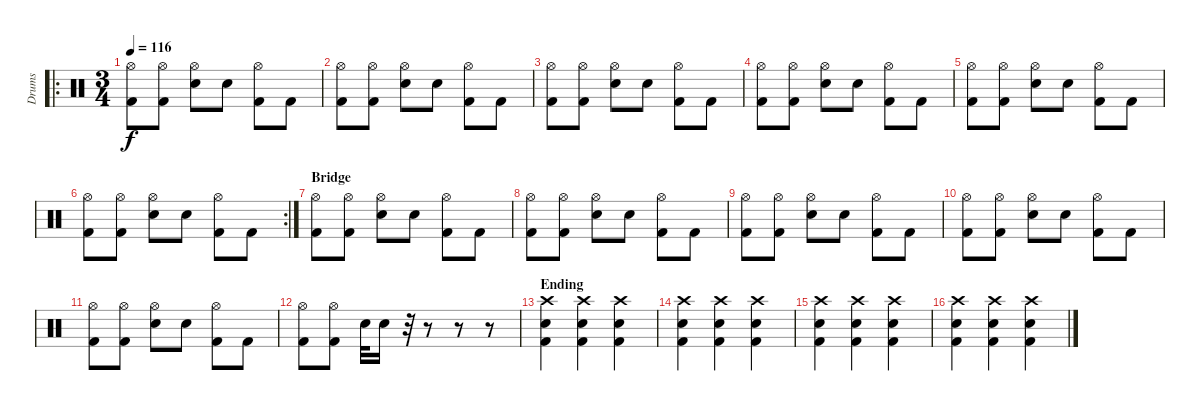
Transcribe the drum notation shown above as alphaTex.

\track ("Drums" "Drums") {instrument percussion}
\staff {score}
\articulation defaults
\ro
\ts (3 4)
\tempo 116
\clef neutral
\ks c
("Hi-Hat (open)" "Kick (hit) 2").8{dy f} ("Hi-Hat (open)" "Kick (hit) 2").8 ("Hi-Hat (open)" "Snare (hit) 2").8 "Snare (hit) 2".8 ("Hi-Hat (open)" "Kick (hit) 2").8 "Kick (hit) 2".8 |
("Hi-Hat (open)" "Kick (hit) 2").8 ("Hi-Hat (open)" "Kick (hit) 2").8 ("Hi-Hat (open)" "Snare (hit) 2").8 "Snare (hit) 2".8 ("Hi-Hat (open)" "Kick (hit) 2").8 "Kick (hit) 2".8 |
("Hi-Hat (open)" "Kick (hit) 2").8 ("Hi-Hat (open)" "Kick (hit) 2").8 ("Hi-Hat (open)" "Snare (hit) 2").8 "Snare (hit) 2".8 ("Hi-Hat (open)" "Kick (hit) 2").8 "Kick (hit) 2".8 |
("Hi-Hat (open)" "Kick (hit) 2").8 ("Hi-Hat (open)" "Kick (hit) 2").8 ("Hi-Hat (open)" "Snare (hit) 2").8 "Snare (hit) 2".8 ("Hi-Hat (open)" "Kick (hit) 2").8 "Kick (hit) 2".8 |
("Hi-Hat (open)" "Kick (hit) 2").8 ("Hi-Hat (open)" "Kick (hit) 2").8 ("Hi-Hat (open)" "Snare (hit) 2").8 "Snare (hit) 2".8 ("Hi-Hat (open)" "Kick (hit) 2").8 "Kick (hit) 2".8 |
\rc 2
("Hi-Hat (open)" "Kick (hit) 2").8 ("Hi-Hat (open)" "Kick (hit) 2").8 ("Hi-Hat (open)" "Snare (hit) 2").8 "Snare (hit) 2".8 ("Hi-Hat (open)" "Kick (hit) 2").8 "Kick (hit) 2".8 |
\section ("" "Bridge")
("Hi-Hat (open)" "Kick (hit) 2").8 ("Hi-Hat (open)" "Kick (hit) 2").8 ("Hi-Hat (open)" "Snare (hit) 2").8 "Snare (hit) 2".8 ("Hi-Hat (open)" "Kick (hit) 2").8 "Kick (hit) 2".8 |
("Hi-Hat (open)" "Kick (hit) 2").8 ("Hi-Hat (open)" "Kick (hit) 2").8 ("Hi-Hat (open)" "Snare (hit) 2").8 "Snare (hit) 2".8 ("Hi-Hat (open)" "Kick (hit) 2").8 "Kick (hit) 2".8 |
("Hi-Hat (open)" "Kick (hit) 2").8 ("Hi-Hat (open)" "Kick (hit) 2").8 ("Hi-Hat (open)" "Snare (hit) 2").8 "Snare (hit) 2".8 ("Hi-Hat (open)" "Kick (hit) 2").8 "Kick (hit) 2".8 |
("Hi-Hat (open)" "Kick (hit) 2").8 ("Hi-Hat (open)" "Kick (hit) 2").8 ("Hi-Hat (open)" "Snare (hit) 2").8 "Snare (hit) 2".8 ("Hi-Hat (open)" "Kick (hit) 2").8 "Kick (hit) 2".8 |
("Hi-Hat (open)" "Kick (hit) 2").8 ("Hi-Hat (open)" "Kick (hit) 2").8 ("Hi-Hat (open)" "Snare (hit) 2").8 "Snare (hit) 2".8 ("Hi-Hat (open)" "Kick (hit) 2").8 "Kick (hit) 2".8 |
("Hi-Hat (open)" "Kick (hit) 2").8 ("Hi-Hat (open)" "Kick (hit) 2").8 "Snare (hit) 2".32 "Snare (hit) 2".16 r.32 r.8 r.8 r.8 |
\section ("" "Ending")
("Crash high (hit)" "Snare (hit) 2" "Kick (hit) 2").4 ("Crash high (hit)" "Snare (hit) 2" "Kick (hit) 2").4 ("Crash high (hit)" "Snare (hit) 2" "Kick (hit) 2").4 |
("Crash high (hit)" "Snare (hit) 2" "Kick (hit) 2").4 ("Crash high (hit)" "Snare (hit) 2" "Kick (hit) 2").4 ("Crash high (hit)" "Snare (hit) 2" "Kick (hit) 2").4 |
("Crash high (hit)" "Snare (hit) 2" "Kick (hit) 2").4 ("Crash high (hit)" "Snare (hit) 2" "Kick (hit) 2").4 ("Crash high (hit)" "Snare (hit) 2" "Kick (hit) 2").4 |
("Crash high (hit)" "Snare (hit) 2" "Kick (hit) 2").4 ("Crash high (hit)" "Snare (hit) 2" "Kick (hit) 2").4 ("Crash high (hit)" "Snare (hit) 2" "Kick (hit) 2").4
